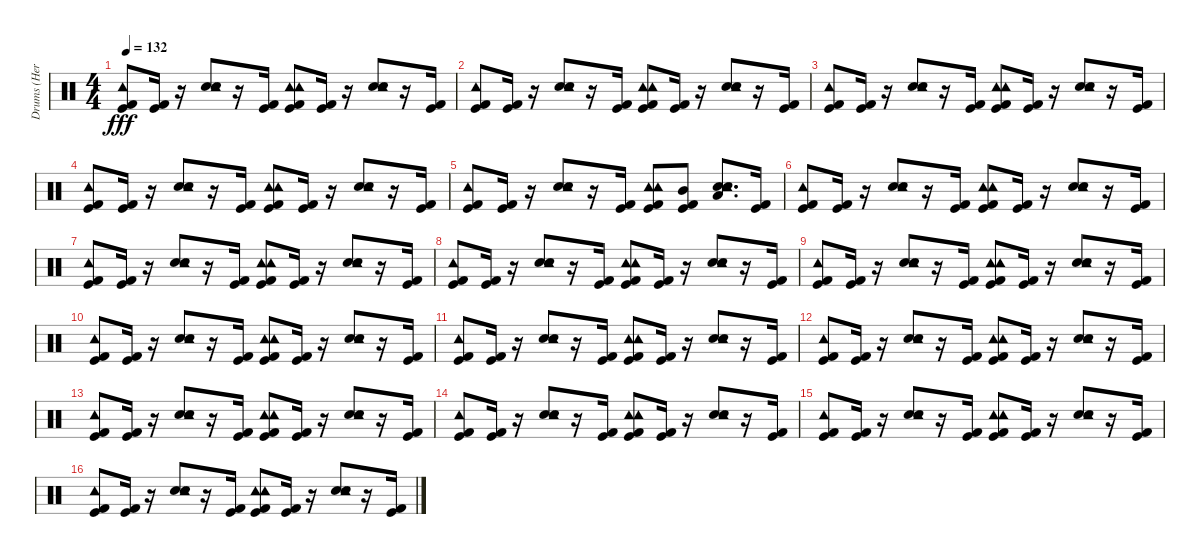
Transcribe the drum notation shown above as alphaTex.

\track ("Drums (Herb Alexander)" "Drums (Her") {instrument percussion}
\staff {score}
\articulation defaults
\ts (4 4)
\tempo 132
\clef neutral
\ks c
("Tambourine (hit)" "Kick (hit)" "Kick (hit) 2").8{dy fff} ("Kick (hit)" "Kick (hit) 2").16 r.16 ("Snare (hit) 2" "Hand Clap (hit)" "Tambourine (hit)").8 r.16 ("Kick (hit)" "Kick (hit) 2").16 ("Tambourine (hit)" "Kick (hit)" "Kick (hit) 2" "Tambourine (hit)").8 ("Kick (hit)" "Kick (hit) 2").16 r.16 ("Snare (hit) 2" "Hand Clap (hit)" "Tambourine (hit)").8 r.16 ("Kick (hit)" "Kick (hit) 2").16 |
("Tambourine (hit)" "Kick (hit)" "Kick (hit) 2").8 ("Kick (hit)" "Kick (hit) 2").16 r.16 ("Snare (hit) 2" "Hand Clap (hit)" "Tambourine (hit)").8 r.16 ("Kick (hit)" "Kick (hit) 2").16 ("Tambourine (hit)" "Kick (hit)" "Kick (hit) 2" "Tambourine (hit)").8 ("Kick (hit)" "Kick (hit) 2").16 r.16 ("Snare (hit) 2" "Hand Clap (hit)" "Tambourine (hit)").8 r.16 ("Kick (hit)" "Kick (hit) 2").16 |
("Tambourine (hit)" "Kick (hit)" "Kick (hit) 2").8 ("Kick (hit)" "Kick (hit) 2").16 r.16 ("Snare (hit) 2" "Hand Clap (hit)" "Tambourine (hit)").8 r.16 ("Kick (hit)" "Kick (hit) 2").16 ("Tambourine (hit)" "Kick (hit)" "Kick (hit) 2" "Tambourine (hit)").8 ("Kick (hit)" "Kick (hit) 2").16 r.16 ("Snare (hit) 2" "Hand Clap (hit)" "Tambourine (hit)").8 r.16 ("Kick (hit)" "Kick (hit) 2").16 |
("Tambourine (hit)" "Kick (hit)" "Kick (hit) 2").8 ("Kick (hit)" "Kick (hit) 2").16 r.16 ("Snare (hit) 2" "Hand Clap (hit)" "Tambourine (hit)").8 r.16 ("Kick (hit)" "Kick (hit) 2").16 ("Tambourine (hit)" "Kick (hit)" "Kick (hit) 2" "Tambourine (hit)").8 ("Kick (hit)" "Kick (hit) 2").16 r.16 ("Snare (hit) 2" "Hand Clap (hit)" "Tambourine (hit)").8 r.16 ("Kick (hit)" "Kick (hit) 2").16 |
("Tambourine (hit)" "Kick (hit)" "Kick (hit) 2").8 ("Kick (hit)" "Kick (hit) 2").16 r.16 ("Snare (hit) 2" "Hand Clap (hit)" "Tambourine (hit)").8 r.16 ("Kick (hit)" "Kick (hit) 2").16 ("Tambourine (hit)" "Kick (hit)" "Kick (hit) 2" "Tambourine (hit)").8 ("Kick (hit)" "Kick (hit) 2" "Mid Tom (hit)").8 ("Snare (hit) 2" "Hand Clap (hit)" "Tambourine (hit)" "Low Floor Tom (hit)").8{d} ("Kick (hit)" "Kick (hit) 2").16 |
("Tambourine (hit)" "Kick (hit)" "Kick (hit) 2").8 ("Kick (hit)" "Kick (hit) 2").16 r.16 ("Snare (hit) 2" "Hand Clap (hit)" "Tambourine (hit)").8 r.16 ("Kick (hit)" "Kick (hit) 2").16 ("Tambourine (hit)" "Kick (hit)" "Kick (hit) 2" "Tambourine (hit)").8 ("Kick (hit)" "Kick (hit) 2").16 r.16 ("Snare (hit) 2" "Hand Clap (hit)" "Tambourine (hit)").8 r.16 ("Kick (hit)" "Kick (hit) 2").16 |
("Tambourine (hit)" "Kick (hit)" "Kick (hit) 2").8 ("Kick (hit)" "Kick (hit) 2").16 r.16 ("Snare (hit) 2" "Hand Clap (hit)" "Tambourine (hit)").8 r.16 ("Kick (hit)" "Kick (hit) 2").16 ("Tambourine (hit)" "Kick (hit)" "Kick (hit) 2" "Tambourine (hit)").8 ("Kick (hit)" "Kick (hit) 2").16 r.16 ("Snare (hit) 2" "Hand Clap (hit)" "Tambourine (hit)").8 r.16 ("Kick (hit)" "Kick (hit) 2").16 |
("Tambourine (hit)" "Kick (hit)" "Kick (hit) 2").8 ("Kick (hit)" "Kick (hit) 2").16 r.16 ("Snare (hit) 2" "Hand Clap (hit)" "Tambourine (hit)").8 r.16 ("Kick (hit)" "Kick (hit) 2").16 ("Tambourine (hit)" "Kick (hit)" "Kick (hit) 2" "Tambourine (hit)").8 ("Kick (hit)" "Kick (hit) 2").16 r.16 ("Snare (hit) 2" "Hand Clap (hit)" "Tambourine (hit)").8 r.16 ("Kick (hit)" "Kick (hit) 2").16 |
("Tambourine (hit)" "Kick (hit)" "Kick (hit) 2").8 ("Kick (hit)" "Kick (hit) 2").16 r.16 ("Snare (hit) 2" "Hand Clap (hit)" "Tambourine (hit)").8 r.16 ("Kick (hit)" "Kick (hit) 2").16 ("Tambourine (hit)" "Kick (hit)" "Kick (hit) 2" "Tambourine (hit)").8 ("Kick (hit)" "Kick (hit) 2").16 r.16 ("Snare (hit) 2" "Hand Clap (hit)" "Tambourine (hit)").8 r.16 ("Kick (hit)" "Kick (hit) 2").16 |
("Tambourine (hit)" "Kick (hit)" "Kick (hit) 2").8 ("Kick (hit)" "Kick (hit) 2").16 r.16 ("Snare (hit) 2" "Hand Clap (hit)" "Tambourine (hit)").8 r.16 ("Kick (hit)" "Kick (hit) 2").16 ("Tambourine (hit)" "Kick (hit)" "Kick (hit) 2" "Tambourine (hit)").8 ("Kick (hit)" "Kick (hit) 2").16 r.16 ("Snare (hit) 2" "Hand Clap (hit)" "Tambourine (hit)").8 r.16 ("Kick (hit)" "Kick (hit) 2").16 |
("Tambourine (hit)" "Kick (hit)" "Kick (hit) 2").8 ("Kick (hit)" "Kick (hit) 2").16 r.16 ("Snare (hit) 2" "Hand Clap (hit)" "Tambourine (hit)").8 r.16 ("Kick (hit)" "Kick (hit) 2").16 ("Tambourine (hit)" "Kick (hit)" "Kick (hit) 2" "Tambourine (hit)").8 ("Kick (hit)" "Kick (hit) 2").16 r.16 ("Snare (hit) 2" "Hand Clap (hit)" "Tambourine (hit)").8 r.16 ("Kick (hit)" "Kick (hit) 2").16 |
("Tambourine (hit)" "Kick (hit)" "Kick (hit) 2").8 ("Kick (hit)" "Kick (hit) 2").16 r.16 ("Snare (hit) 2" "Hand Clap (hit)" "Tambourine (hit)").8 r.16 ("Kick (hit)" "Kick (hit) 2").16 ("Tambourine (hit)" "Kick (hit)" "Kick (hit) 2" "Tambourine (hit)").8 ("Kick (hit)" "Kick (hit) 2").16 r.16 ("Snare (hit) 2" "Hand Clap (hit)" "Tambourine (hit)").8 r.16 ("Kick (hit)" "Kick (hit) 2").16 |
("Tambourine (hit)" "Kick (hit)" "Kick (hit) 2").8 ("Kick (hit)" "Kick (hit) 2").16 r.16 ("Snare (hit) 2" "Hand Clap (hit)" "Tambourine (hit)").8 r.16 ("Kick (hit)" "Kick (hit) 2").16 ("Tambourine (hit)" "Kick (hit)" "Kick (hit) 2" "Tambourine (hit)").8 ("Kick (hit)" "Kick (hit) 2").16 r.16 ("Snare (hit) 2" "Hand Clap (hit)" "Tambourine (hit)").8 r.16 ("Kick (hit)" "Kick (hit) 2").16 |
("Tambourine (hit)" "Kick (hit)" "Kick (hit) 2").8 ("Kick (hit)" "Kick (hit) 2").16 r.16 ("Snare (hit) 2" "Hand Clap (hit)" "Tambourine (hit)").8 r.16 ("Kick (hit)" "Kick (hit) 2").16 ("Tambourine (hit)" "Kick (hit)" "Kick (hit) 2" "Tambourine (hit)").8 ("Kick (hit)" "Kick (hit) 2").16 r.16 ("Snare (hit) 2" "Hand Clap (hit)" "Tambourine (hit)").8 r.16 ("Kick (hit)" "Kick (hit) 2").16 |
("Tambourine (hit)" "Kick (hit)" "Kick (hit) 2").8 ("Kick (hit)" "Kick (hit) 2").16 r.16 ("Snare (hit) 2" "Hand Clap (hit)" "Tambourine (hit)").8 r.16 ("Kick (hit)" "Kick (hit) 2").16 ("Tambourine (hit)" "Kick (hit)" "Kick (hit) 2" "Tambourine (hit)").8 ("Kick (hit)" "Kick (hit) 2").16 r.16 ("Snare (hit) 2" "Hand Clap (hit)" "Tambourine (hit)").8 r.16 ("Kick (hit)" "Kick (hit) 2").16 |
("Tambourine (hit)" "Kick (hit)" "Kick (hit) 2").8 ("Kick (hit)" "Kick (hit) 2").16 r.16 ("Snare (hit) 2" "Hand Clap (hit)" "Tambourine (hit)").8 r.16 ("Kick (hit)" "Kick (hit) 2").16 ("Tambourine (hit)" "Kick (hit)" "Kick (hit) 2" "Tambourine (hit)").8 ("Kick (hit)" "Kick (hit) 2").16 r.16 ("Snare (hit) 2" "Hand Clap (hit)" "Tambourine (hit)").8 r.16 ("Kick (hit)" "Kick (hit) 2").16
